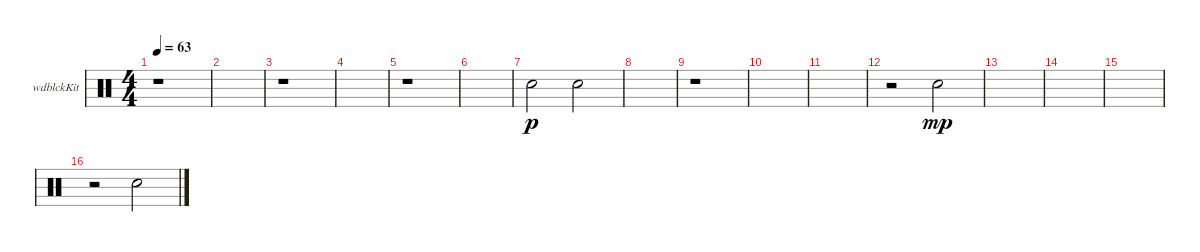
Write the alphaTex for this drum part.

\defaultSystemsLayout 4
\bracketExtendMode groupsimilarinstruments
\firstSystemTrackNameOrientation horizontal
\otherSystemsTrackNameOrientation horizontal
\track ("Woodblock" "wdblckKit") {instrument percussion}
\staff {score}
\articulation defaults
\ts (4 4)
\tempo 63
\clef neutral
\ks c
r.1{dy p} |
|
r.1 |
|
r.1 |
|
"Snare (hit) 2".2 "Snare (hit) 2".2 |
|
r.1 |
|
|
r.2 "Snare (hit) 2".2{dy mp} |
|
|
|
r.2 "Snare (hit) 2".2
